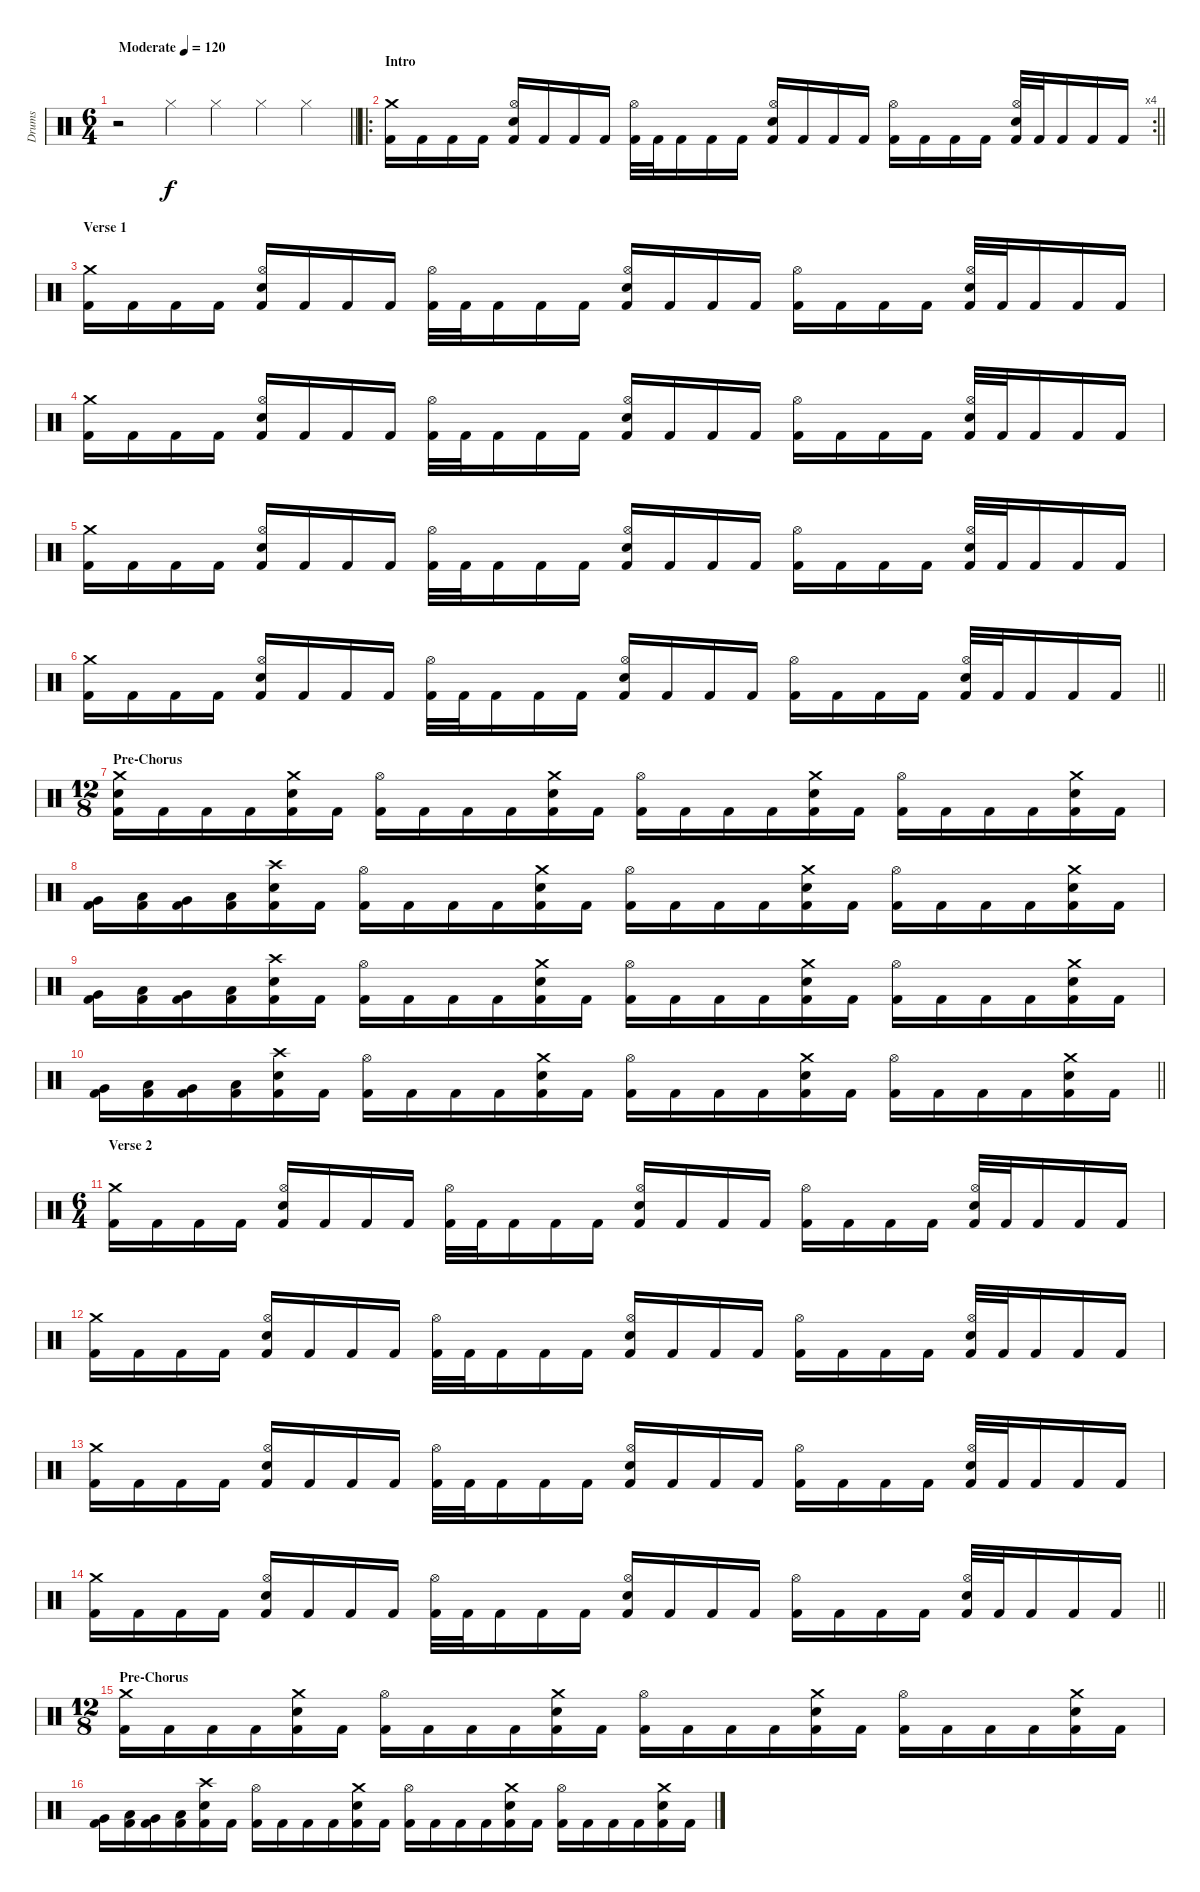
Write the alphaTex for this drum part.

\track ("Drums" "Drums") {instrument percussion}
\staff {score}
\articulation defaults
\ts (6 4)
\tempo (120 "Moderate")
\clef neutral
\barLineRight lightlight
\ks c
r.2{dy f} "Hi-Hat (closed)".4 "Hi-Hat (closed)".4 "Hi-Hat (closed)".4 "Hi-Hat (closed)".4 |
\ro
\rc 4
\section ("" "Intro")
\barLineRight lightlight
("Crash medium (hit)" "Kick (hit) 2").16 "Kick (hit) 2".16 "Kick (hit) 2".16 "Kick (hit) 2".16 ("Hi-Hat (open)" "Electric Snare (hit)" "Kick (hit) 2").16 "Kick (hit) 2".16 "Kick (hit) 2".16 "Kick (hit) 2".16 ("Hi-Hat (open)" "Kick (hit) 2").32 "Kick (hit) 2".32 "Kick (hit) 2".16 "Kick (hit) 2".16 "Kick (hit) 2".16 ("Hi-Hat (open)" "Electric Snare (hit)" "Kick (hit) 2").16 "Kick (hit) 2".16 "Kick (hit) 2".16 "Kick (hit) 2".16 ("Hi-Hat (open)" "Kick (hit) 2").16 "Kick (hit) 2".16 "Kick (hit) 2".16 "Kick (hit) 2".16 ("Hi-Hat (open)" "Electric Snare (hit)" "Kick (hit) 2").32 "Kick (hit) 2".32 "Kick (hit) 2".16 "Kick (hit) 2".16 "Kick (hit) 2".16 |
\section ("" "Verse 1")
("Crash medium (hit)" "Kick (hit) 2").16 "Kick (hit) 2".16 "Kick (hit) 2".16 "Kick (hit) 2".16 ("Hi-Hat (open)" "Electric Snare (hit)" "Kick (hit) 2").16 "Kick (hit) 2".16 "Kick (hit) 2".16 "Kick (hit) 2".16 ("Hi-Hat (open)" "Kick (hit) 2").32 "Kick (hit) 2".32 "Kick (hit) 2".16 "Kick (hit) 2".16 "Kick (hit) 2".16 ("Hi-Hat (open)" "Electric Snare (hit)" "Kick (hit) 2").16 "Kick (hit) 2".16 "Kick (hit) 2".16 "Kick (hit) 2".16 ("Hi-Hat (open)" "Kick (hit) 2").16 "Kick (hit) 2".16 "Kick (hit) 2".16 "Kick (hit) 2".16 ("Hi-Hat (open)" "Electric Snare (hit)" "Kick (hit) 2").32 "Kick (hit) 2".32 "Kick (hit) 2".16 "Kick (hit) 2".16 "Kick (hit) 2".16 |
("Crash medium (hit)" "Kick (hit) 2").16 "Kick (hit) 2".16 "Kick (hit) 2".16 "Kick (hit) 2".16 ("Hi-Hat (open)" "Electric Snare (hit)" "Kick (hit) 2").16 "Kick (hit) 2".16 "Kick (hit) 2".16 "Kick (hit) 2".16 ("Hi-Hat (open)" "Kick (hit) 2").32 "Kick (hit) 2".32 "Kick (hit) 2".16 "Kick (hit) 2".16 "Kick (hit) 2".16 ("Hi-Hat (open)" "Electric Snare (hit)" "Kick (hit) 2").16 "Kick (hit) 2".16 "Kick (hit) 2".16 "Kick (hit) 2".16 ("Hi-Hat (open)" "Kick (hit) 2").16 "Kick (hit) 2".16 "Kick (hit) 2".16 "Kick (hit) 2".16 ("Hi-Hat (open)" "Electric Snare (hit)" "Kick (hit) 2").32 "Kick (hit) 2".32 "Kick (hit) 2".16 "Kick (hit) 2".16 "Kick (hit) 2".16 |
("Crash medium (hit)" "Kick (hit) 2").16 "Kick (hit) 2".16 "Kick (hit) 2".16 "Kick (hit) 2".16 ("Hi-Hat (open)" "Electric Snare (hit)" "Kick (hit) 2").16 "Kick (hit) 2".16 "Kick (hit) 2".16 "Kick (hit) 2".16 ("Hi-Hat (open)" "Kick (hit) 2").32 "Kick (hit) 2".32 "Kick (hit) 2".16 "Kick (hit) 2".16 "Kick (hit) 2".16 ("Hi-Hat (open)" "Electric Snare (hit)" "Kick (hit) 2").16 "Kick (hit) 2".16 "Kick (hit) 2".16 "Kick (hit) 2".16 ("Hi-Hat (open)" "Kick (hit) 2").16 "Kick (hit) 2".16 "Kick (hit) 2".16 "Kick (hit) 2".16 ("Hi-Hat (open)" "Electric Snare (hit)" "Kick (hit) 2").32 "Kick (hit) 2".32 "Kick (hit) 2".16 "Kick (hit) 2".16 "Kick (hit) 2".16 |
\barLineRight lightlight
("Crash medium (hit)" "Kick (hit) 2").16 "Kick (hit) 2".16 "Kick (hit) 2".16 "Kick (hit) 2".16 ("Hi-Hat (open)" "Electric Snare (hit)" "Kick (hit) 2").16 "Kick (hit) 2".16 "Kick (hit) 2".16 "Kick (hit) 2".16 ("Hi-Hat (open)" "Kick (hit) 2").32 "Kick (hit) 2".32 "Kick (hit) 2".16 "Kick (hit) 2".16 "Kick (hit) 2".16 ("Hi-Hat (open)" "Electric Snare (hit)" "Kick (hit) 2").16 "Kick (hit) 2".16 "Kick (hit) 2".16 "Kick (hit) 2".16 ("Hi-Hat (open)" "Kick (hit) 2").16 "Kick (hit) 2".16 "Kick (hit) 2".16 "Kick (hit) 2".16 ("Hi-Hat (open)" "Electric Snare (hit)" "Kick (hit) 2").32 "Kick (hit) 2".32 "Kick (hit) 2".16 "Kick (hit) 2".16 "Kick (hit) 2".16 |
\ts (12 8)
\section ("" "Pre-Chorus")
("Crash medium (hit)" "Electric Snare (hit)" "Kick (hit) 2").16 "Kick (hit) 2".16 "Kick (hit) 2".16 "Kick (hit) 2".16 ("Crash medium (hit)" "Electric Snare (hit)" "Kick (hit) 2").16 "Kick (hit) 2".16 ("Hi-Hat (open)" "Kick (hit) 2").16 "Kick (hit) 2".16 "Kick (hit) 2".16 "Kick (hit) 2".16 ("Crash medium (hit)" "Electric Snare (hit)" "Kick (hit) 2").16 "Kick (hit) 2".16 ("Hi-Hat (open)" "Kick (hit) 2").16 "Kick (hit) 2".16 "Kick (hit) 2".16 "Kick (hit) 2".16 ("Crash medium (hit)" "Electric Snare (hit)" "Kick (hit) 2").16 "Kick (hit) 2".16 ("Hi-Hat (open)" "Kick (hit) 2").16 "Kick (hit) 2".16 "Kick (hit) 2".16 "Kick (hit) 2".16 ("Crash medium (hit)" "Electric Snare (hit)" "Kick (hit) 2").16 "Kick (hit) 2".16 |
("Very Low Tom (hit)" "Kick (hit) 2").16 ("Low Tom (hit)" "Kick (hit) 2").16 ("Very Low Tom (hit)" "Kick (hit) 2").16 ("Low Tom (hit)" "Kick (hit) 2").16 ("Crash high (hit)" "Electric Snare (hit)" "Kick (hit) 2").16 "Kick (hit) 2".16 ("Hi-Hat (open)" "Kick (hit) 2").16 "Kick (hit) 2".16 "Kick (hit) 2".16 "Kick (hit) 2".16 ("Crash medium (hit)" "Electric Snare (hit)" "Kick (hit) 2").16 "Kick (hit) 2".16 ("Hi-Hat (open)" "Kick (hit) 2").16 "Kick (hit) 2".16 "Kick (hit) 2".16 "Kick (hit) 2".16 ("Crash medium (hit)" "Electric Snare (hit)" "Kick (hit) 2").16 "Kick (hit) 2".16 ("Hi-Hat (open)" "Kick (hit) 2").16 "Kick (hit) 2".16 "Kick (hit) 2".16 "Kick (hit) 2".16 ("Crash medium (hit)" "Electric Snare (hit)" "Kick (hit) 2").16 "Kick (hit) 2".16 |
("Very Low Tom (hit)" "Kick (hit) 2").16 ("Low Tom (hit)" "Kick (hit) 2").16 ("Very Low Tom (hit)" "Kick (hit) 2").16 ("Low Tom (hit)" "Kick (hit) 2").16 ("Crash high (hit)" "Electric Snare (hit)" "Kick (hit) 2").16 "Kick (hit) 2".16 ("Hi-Hat (open)" "Kick (hit) 2").16 "Kick (hit) 2".16 "Kick (hit) 2".16 "Kick (hit) 2".16 ("Crash medium (hit)" "Electric Snare (hit)" "Kick (hit) 2").16 "Kick (hit) 2".16 ("Hi-Hat (open)" "Kick (hit) 2").16 "Kick (hit) 2".16 "Kick (hit) 2".16 "Kick (hit) 2".16 ("Crash medium (hit)" "Electric Snare (hit)" "Kick (hit) 2").16 "Kick (hit) 2".16 ("Hi-Hat (open)" "Kick (hit) 2").16 "Kick (hit) 2".16 "Kick (hit) 2".16 "Kick (hit) 2".16 ("Crash medium (hit)" "Electric Snare (hit)" "Kick (hit) 2").16 "Kick (hit) 2".16 |
\barLineRight lightlight
("Very Low Tom (hit)" "Kick (hit) 2").16 ("Low Tom (hit)" "Kick (hit) 2").16 ("Very Low Tom (hit)" "Kick (hit) 2").16 ("Low Tom (hit)" "Kick (hit) 2").16 ("Crash high (hit)" "Electric Snare (hit)" "Kick (hit) 2").16 "Kick (hit) 2".16 ("Hi-Hat (open)" "Kick (hit) 2").16 "Kick (hit) 2".16 "Kick (hit) 2".16 "Kick (hit) 2".16 ("Crash medium (hit)" "Electric Snare (hit)" "Kick (hit) 2").16 "Kick (hit) 2".16 ("Hi-Hat (open)" "Kick (hit) 2").16 "Kick (hit) 2".16 "Kick (hit) 2".16 "Kick (hit) 2".16 ("Crash medium (hit)" "Electric Snare (hit)" "Kick (hit) 2").16 "Kick (hit) 2".16 ("Hi-Hat (open)" "Kick (hit) 2").16 "Kick (hit) 2".16 "Kick (hit) 2".16 "Kick (hit) 2".16 ("Crash medium (hit)" "Electric Snare (hit)" "Kick (hit) 2").16 "Kick (hit) 2".16 |
\ts (6 4)
\section ("" "Verse 2")
("Crash medium (hit)" "Kick (hit) 2").16 "Kick (hit) 2".16 "Kick (hit) 2".16 "Kick (hit) 2".16 ("Hi-Hat (open)" "Electric Snare (hit)" "Kick (hit) 2").16 "Kick (hit) 2".16 "Kick (hit) 2".16 "Kick (hit) 2".16 ("Hi-Hat (open)" "Kick (hit) 2").32 "Kick (hit) 2".32 "Kick (hit) 2".16 "Kick (hit) 2".16 "Kick (hit) 2".16 ("Hi-Hat (open)" "Electric Snare (hit)" "Kick (hit) 2").16 "Kick (hit) 2".16 "Kick (hit) 2".16 "Kick (hit) 2".16 ("Hi-Hat (open)" "Kick (hit) 2").16 "Kick (hit) 2".16 "Kick (hit) 2".16 "Kick (hit) 2".16 ("Hi-Hat (open)" "Electric Snare (hit)" "Kick (hit) 2").32 "Kick (hit) 2".32 "Kick (hit) 2".16 "Kick (hit) 2".16 "Kick (hit) 2".16 |
("Crash medium (hit)" "Kick (hit) 2").16 "Kick (hit) 2".16 "Kick (hit) 2".16 "Kick (hit) 2".16 ("Hi-Hat (open)" "Electric Snare (hit)" "Kick (hit) 2").16 "Kick (hit) 2".16 "Kick (hit) 2".16 "Kick (hit) 2".16 ("Hi-Hat (open)" "Kick (hit) 2").32 "Kick (hit) 2".32 "Kick (hit) 2".16 "Kick (hit) 2".16 "Kick (hit) 2".16 ("Hi-Hat (open)" "Electric Snare (hit)" "Kick (hit) 2").16 "Kick (hit) 2".16 "Kick (hit) 2".16 "Kick (hit) 2".16 ("Hi-Hat (open)" "Kick (hit) 2").16 "Kick (hit) 2".16 "Kick (hit) 2".16 "Kick (hit) 2".16 ("Hi-Hat (open)" "Electric Snare (hit)" "Kick (hit) 2").32 "Kick (hit) 2".32 "Kick (hit) 2".16 "Kick (hit) 2".16 "Kick (hit) 2".16 |
("Crash medium (hit)" "Kick (hit) 2").16 "Kick (hit) 2".16 "Kick (hit) 2".16 "Kick (hit) 2".16 ("Hi-Hat (open)" "Electric Snare (hit)" "Kick (hit) 2").16 "Kick (hit) 2".16 "Kick (hit) 2".16 "Kick (hit) 2".16 ("Hi-Hat (open)" "Kick (hit) 2").32 "Kick (hit) 2".32 "Kick (hit) 2".16 "Kick (hit) 2".16 "Kick (hit) 2".16 ("Hi-Hat (open)" "Electric Snare (hit)" "Kick (hit) 2").16 "Kick (hit) 2".16 "Kick (hit) 2".16 "Kick (hit) 2".16 ("Hi-Hat (open)" "Kick (hit) 2").16 "Kick (hit) 2".16 "Kick (hit) 2".16 "Kick (hit) 2".16 ("Hi-Hat (open)" "Electric Snare (hit)" "Kick (hit) 2").32 "Kick (hit) 2".32 "Kick (hit) 2".16 "Kick (hit) 2".16 "Kick (hit) 2".16 |
\barLineRight lightlight
("Crash medium (hit)" "Kick (hit) 2").16 "Kick (hit) 2".16 "Kick (hit) 2".16 "Kick (hit) 2".16 ("Hi-Hat (open)" "Electric Snare (hit)" "Kick (hit) 2").16 "Kick (hit) 2".16 "Kick (hit) 2".16 "Kick (hit) 2".16 ("Hi-Hat (open)" "Kick (hit) 2").32 "Kick (hit) 2".32 "Kick (hit) 2".16 "Kick (hit) 2".16 "Kick (hit) 2".16 ("Hi-Hat (open)" "Electric Snare (hit)" "Kick (hit) 2").16 "Kick (hit) 2".16 "Kick (hit) 2".16 "Kick (hit) 2".16 ("Hi-Hat (open)" "Kick (hit) 2").16 "Kick (hit) 2".16 "Kick (hit) 2".16 "Kick (hit) 2".16 ("Hi-Hat (open)" "Electric Snare (hit)" "Kick (hit) 2").32 "Kick (hit) 2".32 "Kick (hit) 2".16 "Kick (hit) 2".16 "Kick (hit) 2".16 |
\ts (12 8)
\section ("" "Pre-Chorus")
("Crash medium (hit)" "Kick (hit) 2").16 "Kick (hit) 2".16 "Kick (hit) 2".16 "Kick (hit) 2".16 ("Crash medium (hit)" "Electric Snare (hit)" "Kick (hit) 2").16 "Kick (hit) 2".16 ("Hi-Hat (open)" "Kick (hit) 2").16 "Kick (hit) 2".16 "Kick (hit) 2".16 "Kick (hit) 2".16 ("Crash medium (hit)" "Electric Snare (hit)" "Kick (hit) 2").16 "Kick (hit) 2".16 ("Hi-Hat (open)" "Kick (hit) 2").16 "Kick (hit) 2".16 "Kick (hit) 2".16 "Kick (hit) 2".16 ("Crash medium (hit)" "Electric Snare (hit)" "Kick (hit) 2").16 "Kick (hit) 2".16 ("Hi-Hat (open)" "Kick (hit) 2").16 "Kick (hit) 2".16 "Kick (hit) 2".16 "Kick (hit) 2".16 ("Crash medium (hit)" "Electric Snare (hit)" "Kick (hit) 2").16 "Kick (hit) 2".16 |
("Very Low Tom (hit)" "Kick (hit) 2").16 ("Low Tom (hit)" "Kick (hit) 2").16 ("Very Low Tom (hit)" "Kick (hit) 2").16 ("Low Tom (hit)" "Kick (hit) 2").16 ("Crash high (hit)" "Electric Snare (hit)" "Kick (hit) 2").16 "Kick (hit) 2".16 ("Hi-Hat (open)" "Kick (hit) 2").16 "Kick (hit) 2".16 "Kick (hit) 2".16 "Kick (hit) 2".16 ("Crash medium (hit)" "Electric Snare (hit)" "Kick (hit) 2").16 "Kick (hit) 2".16 ("Hi-Hat (open)" "Kick (hit) 2").16 "Kick (hit) 2".16 "Kick (hit) 2".16 "Kick (hit) 2".16 ("Crash medium (hit)" "Electric Snare (hit)" "Kick (hit) 2").16 "Kick (hit) 2".16 ("Hi-Hat (open)" "Kick (hit) 2").16 "Kick (hit) 2".16 "Kick (hit) 2".16 "Kick (hit) 2".16 ("Crash medium (hit)" "Electric Snare (hit)" "Kick (hit) 2").16 "Kick (hit) 2".16
